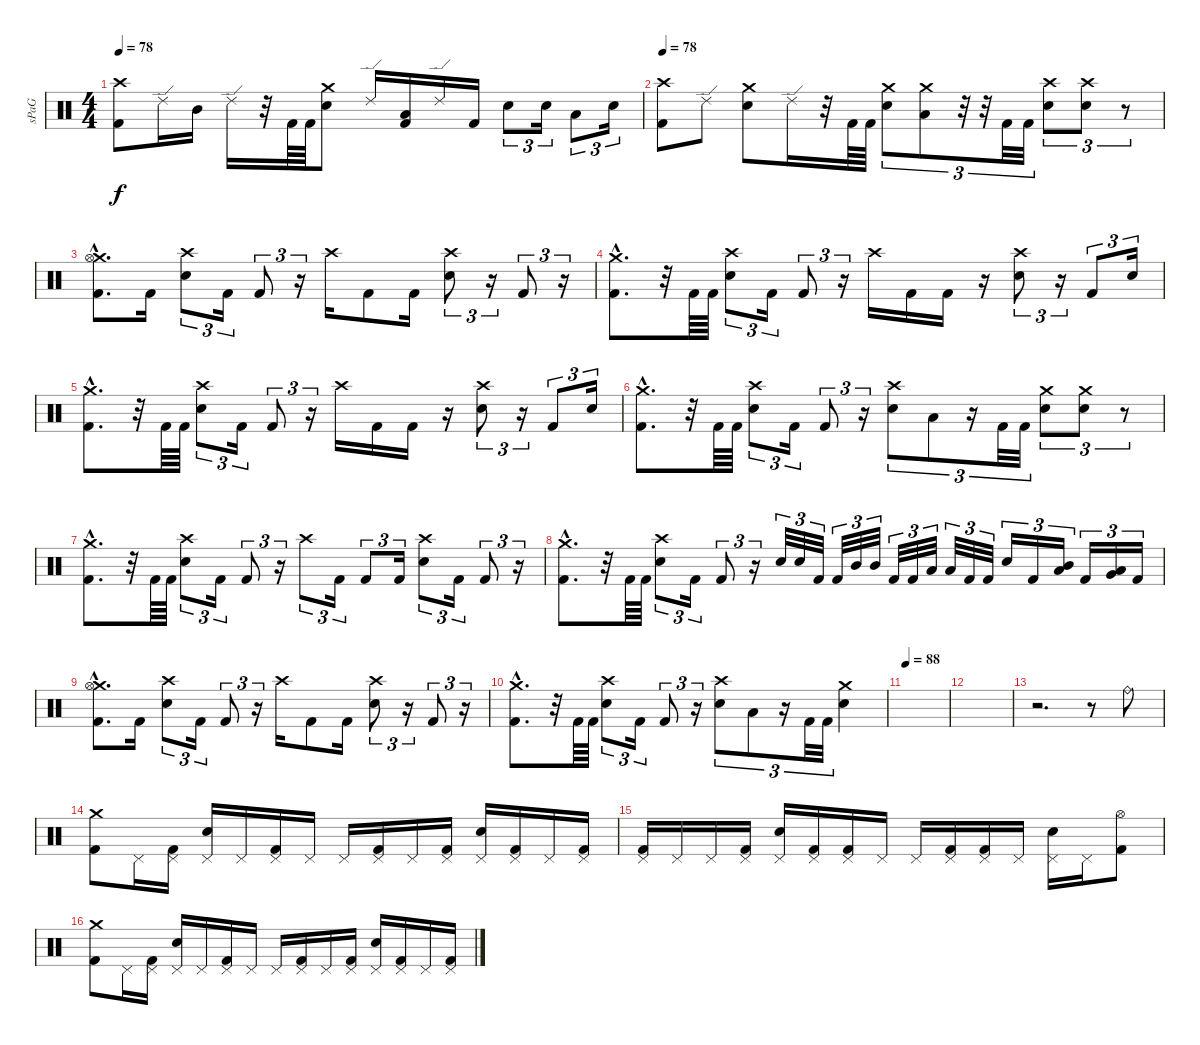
\track ("sPaG" "sPaG") {instrument percussion}
\staff {score}
\articulation defaults
\ts (4 4)
\tempo 78
\clef neutral
\ks c
("Crash high (hit)" "Kick (hit) 2").8{dy f} "Ride (edge) 2".16 "Mid Tom (hit)".16 "Ride (edge) 2".16 r.32 "Kick (hit) 2".64 "Kick (hit) 2".64 ("Crash medium (hit)" "Snare (hit) 2").8 "Ride (edge) 2".16 ("Low Tom (hit)" "Kick (hit) 2").16 "Ride (edge) 2".16 "Kick (hit) 2".16 "Snare (hit) 2".8{tu (3 2)} "Snare (hit) 2".16{tu (3 2)} "Low Tom (hit)".8{tu (3 2)} "Snare (hit) 2".16{tu (3 2)} |
\tempo 78
("Crash high (hit)" "Kick (hit) 2").8 "Ride (edge) 2".8 ("Crash medium (hit)" "Snare (hit) 2").8 "Ride (edge) 2".16 r.32 "Kick (hit) 2".64 "Kick (hit) 2".64 ("Crash medium (hit)" "Snare (hit) 2").8{tu (3 2)} ("Crash medium (hit)" "Low Tom (hit)").8{tu (3 2)} r.32{tu (3 2)} r.32{tu (3 2)} "Kick (hit) 2".32{tu (3 2)} "Kick (hit) 2".32{tu (3 2)} ("Crash high (hit)" "Snare (hit) 2").8{tu (3 2)} ("Crash high (hit)" "Snare (hit) 2").8{tu (3 2)} r.8{tu (3 2)} |
("Crash medium (hit)"{hac} "Hi-Hat (open)"{hac} "Kick (hit) 2"{hac}).8{d} "Kick (hit) 2".16 ("Crash high (hit)" "Snare (hit) 2").8{tu (3 2)} "Kick (hit) 2".16{tu (3 2)} "Kick (hit) 2".8{tu (3 2)} r.16{tu (3 2)} "Crash high (hit)".16 "Kick (hit) 2".8 "Kick (hit) 2".16 ("Crash high (hit)" "Snare (hit) 2").8{tu (3 2)} r.16{tu (3 2)} "Kick (hit) 2".8{tu (3 2)} r.16{tu (3 2)} |
("Crash medium (hit)"{hac} "Kick (hit) 2"{hac}).8{d} r.32 "Kick (hit) 2".64 "Kick (hit) 2".64 ("Crash high (hit)" "Snare (hit) 2").8{tu (3 2)} "Kick (hit) 2".16{tu (3 2)} "Kick (hit) 2".8{tu (3 2)} r.16{tu (3 2)} "Crash high (hit)".16 "Kick (hit) 2".16 "Kick (hit) 2".16 r.16 ("Crash high (hit)" "Snare (hit) 2").8{tu (3 2)} r.16{tu (3 2)} "Kick (hit) 2".8{tu (3 2)} "Snare (hit) 2".16{tu (3 2)} |
("Crash medium (hit)"{hac} "Kick (hit) 2"{hac}).8{d} r.32 "Kick (hit) 2".64 "Kick (hit) 2".64 ("Crash high (hit)" "Snare (hit) 2").8{tu (3 2)} "Kick (hit) 2".16{tu (3 2)} "Kick (hit) 2".8{tu (3 2)} r.16{tu (3 2)} "Crash high (hit)".16 "Kick (hit) 2".16 "Kick (hit) 2".16 r.16 ("Crash high (hit)" "Snare (hit) 2").8{tu (3 2)} r.16{tu (3 2)} "Kick (hit) 2".8{tu (3 2)} "Snare (hit) 2".16{tu (3 2)} |
("Crash medium (hit)"{hac} "Kick (hit) 2"{hac}).8{d} r.32 "Kick (hit) 2".64 "Kick (hit) 2".64 ("Crash high (hit)" "Snare (hit) 2").8{tu (3 2)} "Kick (hit) 2".16{tu (3 2)} "Kick (hit) 2".8{tu (3 2)} r.16{tu (3 2)} ("Crash high (hit)" "Snare (hit) 2").8{tu (3 2)} "Low Tom (hit)".8{tu (3 2)} r.16{tu (3 2)} "Kick (hit) 2".32{tu (3 2)} "Kick (hit) 2".32{tu (3 2)} ("Crash medium (hit)" "Snare (hit) 2").8{tu (3 2)} ("Crash medium (hit)" "Snare (hit) 2").8{tu (3 2)} r.8{tu (3 2)} |
("Crash medium (hit)"{hac} "Kick (hit) 2"{hac}).8{d} r.32 "Kick (hit) 2".64 "Kick (hit) 2".64 ("Crash high (hit)" "Snare (hit) 2").8{tu (3 2)} "Kick (hit) 2".16{tu (3 2)} "Kick (hit) 2".8{tu (3 2)} r.16{tu (3 2)} "Crash high (hit)".8{tu (3 2)} "Kick (hit) 2".16{tu (3 2)} "Kick (hit) 2".8{tu (3 2)} "Kick (hit) 2".16{tu (3 2)} ("Crash high (hit)" "Snare (hit) 2").8{tu (3 2)} "Kick (hit) 2".16{tu (3 2)} "Kick (hit) 2".8{tu (3 2)} r.16{tu (3 2)} |
("Crash medium (hit)"{hac} "Kick (hit) 2"{hac}).8{d} r.32 "Kick (hit) 2".64 "Kick (hit) 2".64 ("Crash high (hit)" "Snare (hit) 2").8{tu (3 2)} "Kick (hit) 2".16{tu (3 2)} "Kick (hit) 2".8{tu (3 2)} r.16{tu (3 2)} "Snare (hit) 2".32{tu (3 2)} "Snare (hit) 2".32{tu (3 2)} "Kick (hit) 2".32{tu (3 2)} "Kick (hit) 2".32{tu (3 2)} "Mid Tom (hit)".32{tu (3 2)} "Mid Tom (hit)".32{tu (3 2)} "Kick (hit) 2".32{tu (3 2)} "Kick (hit) 2".32{tu (3 2)} "Low Tom (hit)".32{tu (3 2)} "Low Tom (hit)".32{tu (3 2)} "Kick (hit) 2".32{tu (3 2)} "Kick (hit) 2".32{tu (3 2)} "Snare (hit) 2".16{tu (3 2)} "Kick (hit) 2".16{tu (3 2)} ("Mid Tom (hit)" "Low Tom (hit)").16{tu (3 2)} "Kick (hit) 2".16{tu (3 2)} ("Low Tom (hit)" "Very Low Tom (hit)").16{tu (3 2)} "Kick (hit) 2".16{tu (3 2)} |
("Crash medium (hit)"{hac} "Hi-Hat (open)"{hac} "Kick (hit) 2"{hac}).8{d} "Kick (hit) 2".16 ("Crash high (hit)" "Snare (hit) 2").8{tu (3 2)} "Kick (hit) 2".16{tu (3 2)} "Kick (hit) 2".8{tu (3 2)} r.16{tu (3 2)} "Crash high (hit)".16 "Kick (hit) 2".8 "Kick (hit) 2".16 ("Crash high (hit)" "Snare (hit) 2").8{tu (3 2)} r.16{tu (3 2)} "Kick (hit) 2".8{tu (3 2)} r.16{tu (3 2)} |
("Crash medium (hit)"{hac} "Kick (hit) 2"{hac}).8{d} r.32 "Kick (hit) 2".64 "Kick (hit) 2".64 ("Crash high (hit)" "Snare (hit) 2").8{tu (3 2)} "Kick (hit) 2".16{tu (3 2)} "Kick (hit) 2".8{tu (3 2)} r.16{tu (3 2)} ("Crash high (hit)" "Snare (hit) 2").8{tu (3 2)} "Low Tom (hit)".8{tu (3 2)} r.16{tu (3 2)} "Kick (hit) 2".32{tu (3 2)} "Kick (hit) 2".32{tu (3 2)} ("Crash medium (hit)" "Snare (hit) 2").4 |
\tempo 88
|
|
r.2{d} r.8 "Ride (bell)".8 |
("Crash medium (hit)" "Kick (hit) 2").8 "Pedal Hi-Hat (hit)".16 ("Pedal Hi-Hat (hit)" "Kick (hit) 2").16 ("Pedal Hi-Hat (hit)" "Snare (hit) 2").16 "Pedal Hi-Hat (hit)".16 ("Pedal Hi-Hat (hit)" "Kick (hit) 2").16 "Pedal Hi-Hat (hit)".16 "Pedal Hi-Hat (hit)".16 ("Pedal Hi-Hat (hit)" "Kick (hit) 2").16 "Pedal Hi-Hat (hit)".16 ("Pedal Hi-Hat (hit)" "Kick (hit) 2").16 ("Pedal Hi-Hat (hit)" "Snare (hit) 2").16 ("Pedal Hi-Hat (hit)" "Kick (hit) 2").16 "Pedal Hi-Hat (hit)".16 ("Pedal Hi-Hat (hit)" "Kick (hit) 2").16 |
("Pedal Hi-Hat (hit)" "Kick (hit) 2").16 "Pedal Hi-Hat (hit)".16 "Pedal Hi-Hat (hit)".16 ("Pedal Hi-Hat (hit)" "Kick (hit) 2").16 ("Pedal Hi-Hat (hit)" "Snare (hit) 2").16 ("Pedal Hi-Hat (hit)" "Kick (hit) 2").16 ("Pedal Hi-Hat (hit)" "Kick (hit) 2").16 "Pedal Hi-Hat (hit)".16 "Pedal Hi-Hat (hit)".16 ("Pedal Hi-Hat (hit)" "Kick (hit) 2").16 ("Pedal Hi-Hat (hit)" "Kick (hit) 2").16 "Pedal Hi-Hat (hit)".16 ("Pedal Hi-Hat (hit)" "Snare (hit) 2").16 "Pedal Hi-Hat (hit)".16 ("Hi-Hat (open)" "Kick (hit) 2").8 |
("Crash medium (hit)" "Kick (hit) 2").8 "Pedal Hi-Hat (hit)".16 ("Pedal Hi-Hat (hit)" "Kick (hit) 2").16 ("Pedal Hi-Hat (hit)" "Snare (hit) 2").16 "Pedal Hi-Hat (hit)".16 ("Pedal Hi-Hat (hit)" "Kick (hit) 2").16 "Pedal Hi-Hat (hit)".16 "Pedal Hi-Hat (hit)".16 ("Pedal Hi-Hat (hit)" "Kick (hit) 2").16 "Pedal Hi-Hat (hit)".16 ("Pedal Hi-Hat (hit)" "Kick (hit) 2").16 ("Pedal Hi-Hat (hit)" "Snare (hit) 2").16 ("Pedal Hi-Hat (hit)" "Kick (hit) 2").16 "Pedal Hi-Hat (hit)".16 ("Pedal Hi-Hat (hit)" "Kick (hit) 2").16
